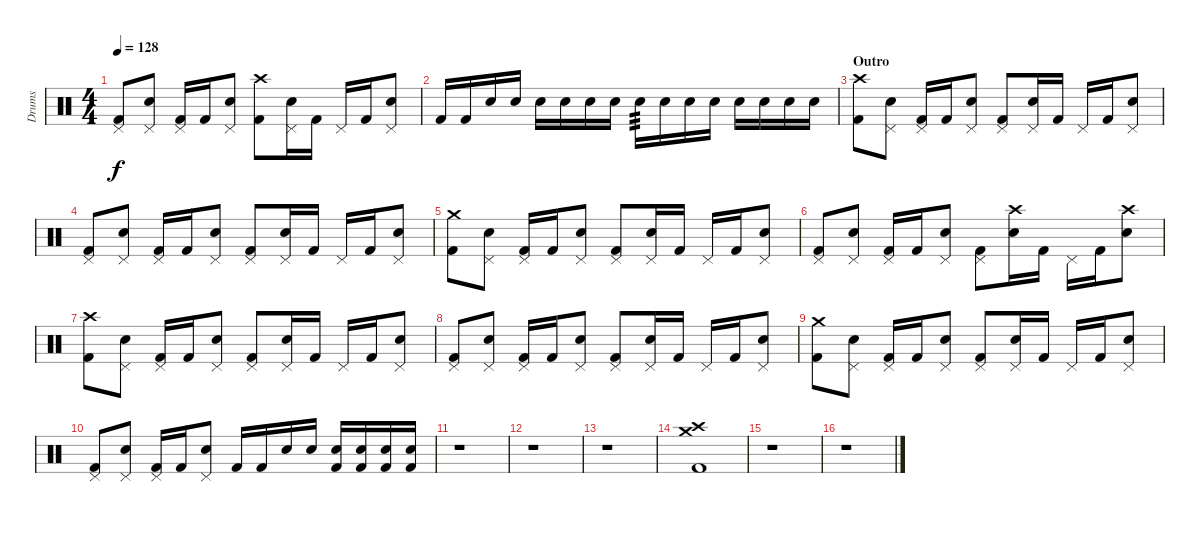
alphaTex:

\track ("Drums" "Drums") {instrument percussion}
\staff {score}
\articulation defaults
\ts (4 4)
\tempo 128
\clef neutral
\ks c
("Pedal Hi-Hat (hit)" "Kick (hit) 2").8{dy f} ("Pedal Hi-Hat (hit)" "Snare (hit) 2").8 ("Pedal Hi-Hat (hit)" "Kick (hit) 2").16 "Kick (hit) 2".16 ("Pedal Hi-Hat (hit)" "Snare (hit) 2").8 ("Crash high (hit)" "Kick (hit) 2").8 ("Pedal Hi-Hat (hit)" "Snare (hit) 2").16 "Kick (hit) 2".16 "Pedal Hi-Hat (hit)".16 "Kick (hit) 2".16 ("Pedal Hi-Hat (hit)" "Snare (hit) 2").8 |
"Kick (hit) 2".16 "Kick (hit) 2".16 "Snare (hit) 2".16 "Snare (hit) 2".16 "Snare (hit) 2".16 "Snare (hit) 2".16 "Snare (hit) 2".16 "Snare (hit) 2".16 "Snare (hit) 2".16{tp 3} "Snare (hit) 2".16 "Snare (hit) 2".16 "Snare (hit) 2".16 "Snare (hit) 2".16 "Snare (hit) 2".16 "Snare (hit) 2".16 "Snare (hit) 2".16 |
\section ("" "Outro")
("Crash high (hit)" "Kick (hit) 2").8 ("Pedal Hi-Hat (hit)" "Snare (hit) 2").8 ("Pedal Hi-Hat (hit)" "Kick (hit) 2").16 "Kick (hit) 2".16 ("Pedal Hi-Hat (hit)" "Snare (hit) 2").8 ("Pedal Hi-Hat (hit)" "Kick (hit) 2").8 ("Pedal Hi-Hat (hit)" "Snare (hit) 2").16 "Kick (hit) 2".16 "Pedal Hi-Hat (hit)".16 "Kick (hit) 2".16 ("Pedal Hi-Hat (hit)" "Snare (hit) 2").8 |
("Pedal Hi-Hat (hit)" "Kick (hit) 2").8 ("Pedal Hi-Hat (hit)" "Snare (hit) 2").8 ("Pedal Hi-Hat (hit)" "Kick (hit) 2").16 "Kick (hit) 2".16 ("Pedal Hi-Hat (hit)" "Snare (hit) 2").8 ("Pedal Hi-Hat (hit)" "Kick (hit) 2").8 ("Pedal Hi-Hat (hit)" "Snare (hit) 2").16 "Kick (hit) 2".16 "Pedal Hi-Hat (hit)".16 "Kick (hit) 2".16 ("Pedal Hi-Hat (hit)" "Snare (hit) 2").8 |
("Crash medium (hit)" "Kick (hit) 2").8 ("Pedal Hi-Hat (hit)" "Snare (hit) 2").8 ("Pedal Hi-Hat (hit)" "Kick (hit) 2").16 "Kick (hit) 2".16 ("Pedal Hi-Hat (hit)" "Snare (hit) 2").8 ("Pedal Hi-Hat (hit)" "Kick (hit) 2").8 ("Pedal Hi-Hat (hit)" "Snare (hit) 2").16 "Kick (hit) 2".16 "Pedal Hi-Hat (hit)".16 "Kick (hit) 2".16 ("Pedal Hi-Hat (hit)" "Snare (hit) 2").8 |
("Pedal Hi-Hat (hit)" "Kick (hit) 2").8 ("Pedal Hi-Hat (hit)" "Snare (hit) 2").8 ("Pedal Hi-Hat (hit)" "Kick (hit) 2").16 "Kick (hit) 2".16 ("Pedal Hi-Hat (hit)" "Snare (hit) 2").8 ("Pedal Hi-Hat (hit)" "Kick (hit) 2").8 ("Crash high (hit)" "Snare (hit) 2").16 "Kick (hit) 2".16 "Pedal Hi-Hat (hit)".16 "Kick (hit) 2".16 ("Crash high (hit)" "Snare (hit) 2").8 |
("Crash high (hit)" "Kick (hit) 2").8 ("Pedal Hi-Hat (hit)" "Snare (hit) 2").8 ("Pedal Hi-Hat (hit)" "Kick (hit) 2").16 "Kick (hit) 2".16 ("Pedal Hi-Hat (hit)" "Snare (hit) 2").8 ("Pedal Hi-Hat (hit)" "Kick (hit) 2").8 ("Pedal Hi-Hat (hit)" "Snare (hit) 2").16 "Kick (hit) 2".16 "Pedal Hi-Hat (hit)".16 "Kick (hit) 2".16 ("Pedal Hi-Hat (hit)" "Snare (hit) 2").8 |
("Pedal Hi-Hat (hit)" "Kick (hit) 2").8 ("Pedal Hi-Hat (hit)" "Snare (hit) 2").8 ("Pedal Hi-Hat (hit)" "Kick (hit) 2").16 "Kick (hit) 2".16 ("Pedal Hi-Hat (hit)" "Snare (hit) 2").8 ("Pedal Hi-Hat (hit)" "Kick (hit) 2").8 ("Pedal Hi-Hat (hit)" "Snare (hit) 2").16 "Kick (hit) 2".16 "Pedal Hi-Hat (hit)".16 "Kick (hit) 2".16 ("Pedal Hi-Hat (hit)" "Snare (hit) 2").8 |
("Crash medium (hit)" "Kick (hit) 2").8 ("Pedal Hi-Hat (hit)" "Snare (hit) 2").8 ("Pedal Hi-Hat (hit)" "Kick (hit) 2").16 "Kick (hit) 2".16 ("Pedal Hi-Hat (hit)" "Snare (hit) 2").8 ("Pedal Hi-Hat (hit)" "Kick (hit) 2").8 ("Pedal Hi-Hat (hit)" "Snare (hit) 2").16 "Kick (hit) 2".16 "Pedal Hi-Hat (hit)".16 "Kick (hit) 2".16 ("Pedal Hi-Hat (hit)" "Snare (hit) 2").8 |
("Pedal Hi-Hat (hit)" "Kick (hit) 2").8 ("Pedal Hi-Hat (hit)" "Snare (hit) 2").8 ("Pedal Hi-Hat (hit)" "Kick (hit) 2").16 "Kick (hit) 2".16 ("Pedal Hi-Hat (hit)" "Snare (hit) 2").8 "Kick (hit) 2".16 "Kick (hit) 2".16 "Snare (hit) 2".16 "Snare (hit) 2".16 ("Snare (hit) 2" "Kick (hit) 2").16 ("Snare (hit) 2" "Kick (hit) 2").16 ("Snare (hit) 2" "Kick (hit) 2").16 ("Snare (hit) 2" "Kick (hit) 2").16 |
r.1 |
r.1 |
r.1 |
("Crash high (hit)" "Crash medium (hit)" "Kick (hit) 2").1 |
r.1 |
r.1
